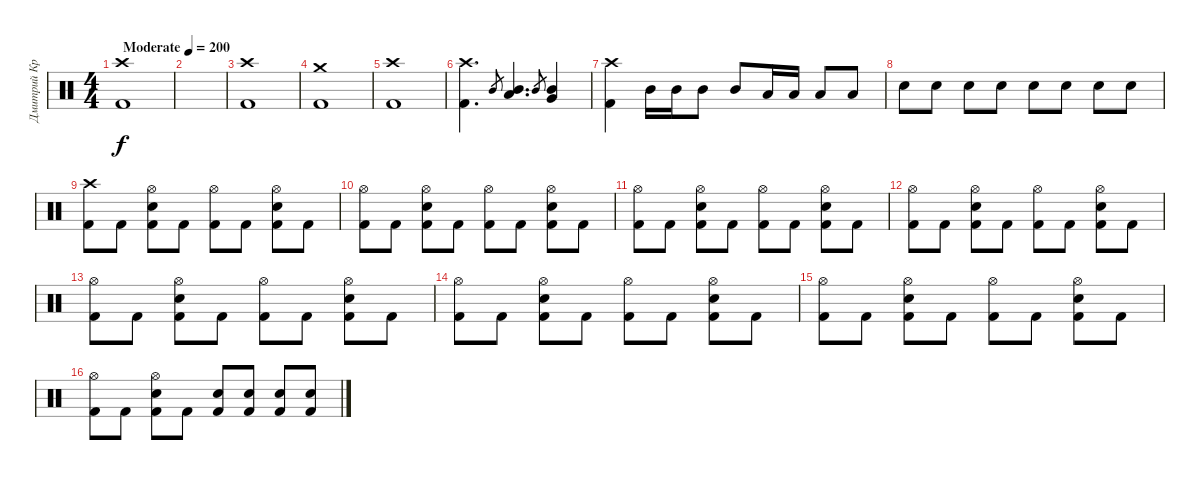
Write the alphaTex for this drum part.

\track ("Дмитрий Кривенков" "Дмитрий Кр") {instrument percussion}
\staff {score}
\articulation defaults
\ts (4 4)
\tempo (200 "Moderate")
\clef neutral
\ks c
("Crash high (hit)" "Kick (hit) 2").1{dy f} |
|
("Crash high (hit)" "Kick (hit) 2").1 |
("Crash medium (hit)" "Kick (hit) 2").1 |
("Crash high (hit)" "Kick (hit) 2").1 |
("Crash high (hit)" "Kick (hit) 2").4{d} "Mid Tom (hit)".8{gr} ("Mid Tom (hit)" "Low Tom (hit)").4{d} "Mid Tom (hit)".8{gr} ("Mid Tom (hit)" "Very Low Tom (hit)").4 |
("Crash high (hit)" "Kick (hit) 2").4 "Mid Tom (hit)".16 "Mid Tom (hit)".16 "Mid Tom (hit)".8 "Mid Tom (hit)".8 "Low Tom (hit)".16 "Low Tom (hit)".16 "Low Tom (hit)".8 "Low Tom (hit)".8 |
"Electric Snare (hit)".8 "Electric Snare (hit)".8 "Electric Snare (hit)".8 "Electric Snare (hit)".8 "Electric Snare (hit)".8 "Electric Snare (hit)".8 "Electric Snare (hit)".8 "Electric Snare (hit)".8 |
("Crash high (hit)" "Kick (hit) 2").8 "Kick (hit) 2".8 ("Hi-Hat (open)" "Electric Snare (hit)" "Kick (hit) 2").8 "Kick (hit) 2".8 ("Hi-Hat (open)" "Kick (hit) 2").8 "Kick (hit) 2".8 ("Hi-Hat (open)" "Electric Snare (hit)" "Kick (hit) 2").8 "Kick (hit) 2".8 |
("Hi-Hat (open)" "Kick (hit) 2").8 "Kick (hit) 2".8 ("Hi-Hat (open)" "Electric Snare (hit)" "Kick (hit) 2").8 "Kick (hit) 2".8 ("Hi-Hat (open)" "Kick (hit) 2").8 "Kick (hit) 2".8 ("Hi-Hat (open)" "Electric Snare (hit)" "Kick (hit) 2").8 "Kick (hit) 2".8 |
("Hi-Hat (open)" "Kick (hit) 2").8 "Kick (hit) 2".8 ("Hi-Hat (open)" "Electric Snare (hit)" "Kick (hit) 2").8 "Kick (hit) 2".8 ("Hi-Hat (open)" "Kick (hit) 2").8 "Kick (hit) 2".8 ("Hi-Hat (open)" "Electric Snare (hit)" "Kick (hit) 2").8 "Kick (hit) 2".8 |
("Hi-Hat (open)" "Kick (hit) 2").8 "Kick (hit) 2".8 ("Hi-Hat (open)" "Electric Snare (hit)" "Kick (hit) 2").8 "Kick (hit) 2".8 ("Hi-Hat (open)" "Kick (hit) 2").8 "Kick (hit) 2".8 ("Hi-Hat (open)" "Electric Snare (hit)" "Kick (hit) 2").8 "Kick (hit) 2".8 |
("Hi-Hat (open)" "Kick (hit) 2").8 "Kick (hit) 2".8 ("Hi-Hat (open)" "Electric Snare (hit)" "Kick (hit) 2").8 "Kick (hit) 2".8 ("Hi-Hat (open)" "Kick (hit) 2").8 "Kick (hit) 2".8 ("Hi-Hat (open)" "Electric Snare (hit)" "Kick (hit) 2").8 "Kick (hit) 2".8 |
("Hi-Hat (open)" "Kick (hit) 2").8 "Kick (hit) 2".8 ("Hi-Hat (open)" "Electric Snare (hit)" "Kick (hit) 2").8 "Kick (hit) 2".8 ("Hi-Hat (open)" "Kick (hit) 2").8 "Kick (hit) 2".8 ("Hi-Hat (open)" "Electric Snare (hit)" "Kick (hit) 2").8 "Kick (hit) 2".8 |
("Hi-Hat (open)" "Kick (hit) 2").8 "Kick (hit) 2".8 ("Hi-Hat (open)" "Electric Snare (hit)" "Kick (hit) 2").8 "Kick (hit) 2".8 ("Hi-Hat (open)" "Kick (hit) 2").8 "Kick (hit) 2".8 ("Hi-Hat (open)" "Electric Snare (hit)" "Kick (hit) 2").8 "Kick (hit) 2".8 |
("Hi-Hat (open)" "Kick (hit) 2").8 "Kick (hit) 2".8 ("Hi-Hat (open)" "Electric Snare (hit)" "Kick (hit) 2").8 "Kick (hit) 2".8 ("Electric Snare (hit)" "Kick (hit) 2").8 ("Electric Snare (hit)" "Kick (hit) 2").8 ("Electric Snare (hit)" "Kick (hit) 2").8 ("Electric Snare (hit)" "Kick (hit) 2").8
